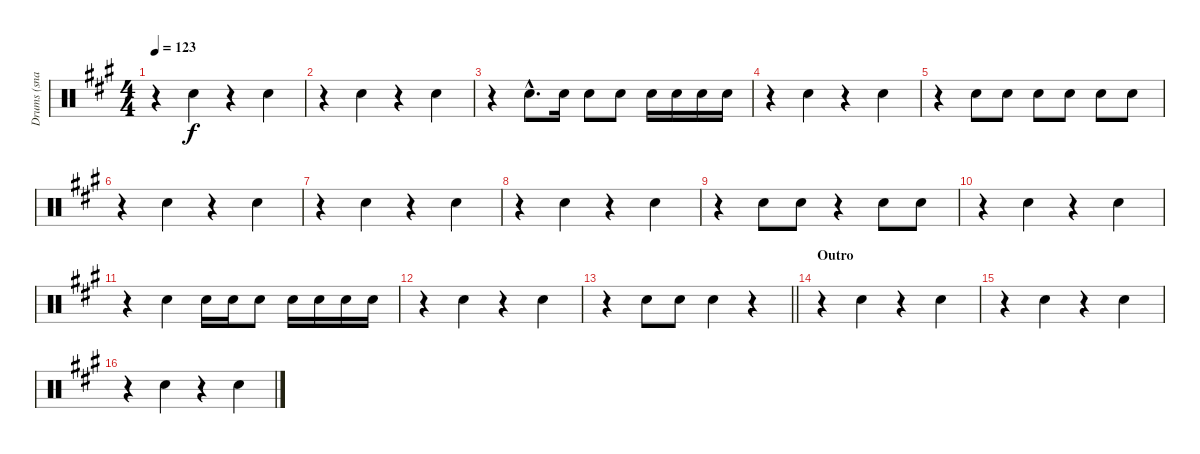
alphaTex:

\track ("Drums (snare)" "Drums (sna") {instrument percussion}
\staff {score}
\articulation defaults
\ts (4 4)
\tempo 123
\clef neutral
\ks a
r.4{dy f} "Snare (hit) 2".4 r.4 "Snare (hit) 2".4 |
r.4 "Snare (hit) 2".4 r.4 "Snare (hit) 2".4 |
r.4 "Snare (hit) 2"{hac}.8{d} "Snare (hit) 2".16 "Snare (hit) 2".8 "Snare (hit) 2".8 "Snare (hit) 2".16 "Snare (hit) 2".16 "Snare (hit) 2".16 "Snare (hit) 2".16 |
r.4 "Snare (hit) 2".4 r.4 "Snare (hit) 2".4 |
r.4 "Snare (hit) 2".8 "Snare (hit) 2".8 "Snare (hit) 2".8 "Snare (hit) 2".8 "Snare (hit) 2".8 "Snare (hit) 2".8 |
r.4 "Snare (hit) 2".4 r.4 "Snare (hit) 2".4 |
r.4 "Snare (hit) 2".4 r.4 "Snare (hit) 2".4 |
r.4 "Snare (hit) 2".4 r.4 "Snare (hit) 2".4 |
r.4 "Snare (hit) 2".8 "Snare (hit) 2".8 r.4 "Snare (hit) 2".8 "Snare (hit) 2".8 |
r.4 "Snare (hit) 2".4 r.4 "Snare (hit) 2".4 |
r.4 "Snare (hit) 2".4 "Snare (hit) 2".16 "Snare (hit) 2".16 "Snare (hit) 2".8 "Snare (hit) 2".16 "Snare (hit) 2".16 "Snare (hit) 2".16 "Snare (hit) 2".16 |
r.4 "Snare (hit) 2".4 r.4 "Snare (hit) 2".4 |
\barLineRight lightlight
r.4 "Snare (hit) 2".8 "Snare (hit) 2".8 "Snare (hit) 2".4 r.4 |
\section ("" "Outro")
r.4 "Snare (hit) 2".4 r.4 "Snare (hit) 2".4 |
r.4 "Snare (hit) 2".4 r.4 "Snare (hit) 2".4 |
r.4 "Snare (hit) 2".4 r.4 "Snare (hit) 2".4
